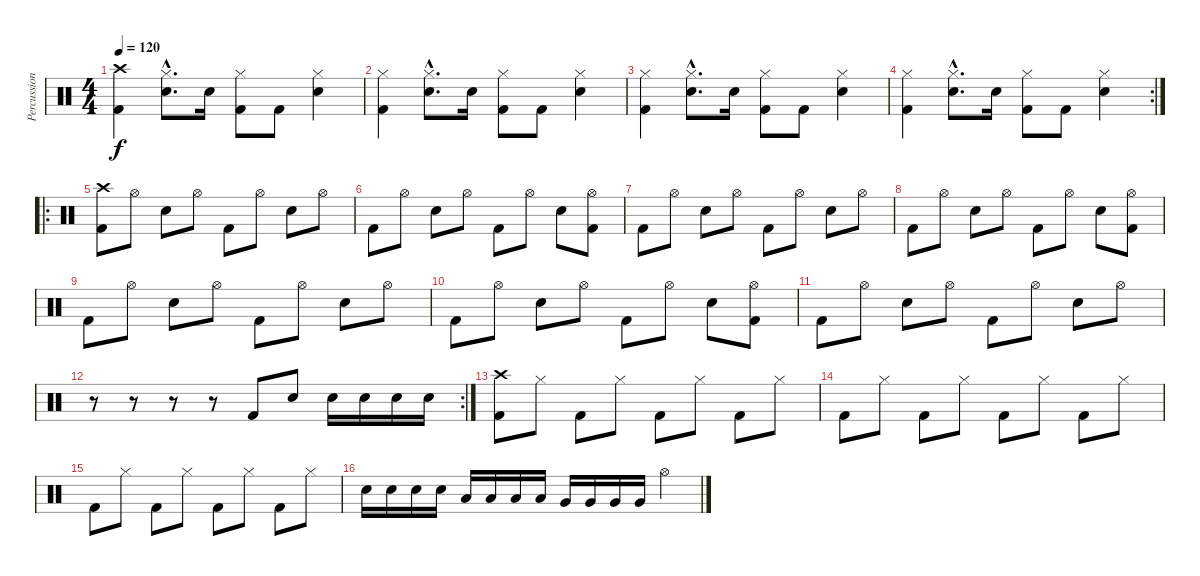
\track ("Percussions" "Percussion") {instrument percussion}
\staff {score}
\articulation defaults
\ts (4 4)
\tempo 120
\clef neutral
\ks c
("Crash high (hit)" "Kick (hit) 2").4{dy f volume 14} ("Hi-Hat (closed)"{hac} "Snare (hit) 2"{hac}).8{d} "Snare (hit) 2".16 ("Hi-Hat (closed)" "Kick (hit) 2").8 "Kick (hit) 2".8 ("Hi-Hat (closed)" "Snare (hit) 2").4 |
("Hi-Hat (closed)" "Kick (hit) 2").4 ("Hi-Hat (closed)"{hac} "Snare (hit) 2"{hac}).8{d} "Snare (hit) 2".16 ("Hi-Hat (closed)" "Kick (hit) 2").8 "Kick (hit) 2".8 ("Hi-Hat (closed)" "Snare (hit) 2").4 |
("Hi-Hat (closed)" "Kick (hit) 2").4 ("Hi-Hat (closed)"{hac} "Snare (hit) 2"{hac}).8{d} "Snare (hit) 2".16 ("Hi-Hat (closed)" "Kick (hit) 2").8 "Kick (hit) 2".8 ("Hi-Hat (closed)" "Snare (hit) 2").4 |
\rc 2
("Hi-Hat (closed)" "Kick (hit) 2").4 ("Hi-Hat (closed)"{hac} "Snare (hit) 2"{hac}).8{d} "Snare (hit) 2".16 ("Hi-Hat (closed)" "Kick (hit) 2").8 "Kick (hit) 2".8 ("Hi-Hat (closed)" "Snare (hit) 2").4 |
\ro
("Kick (hit) 2" "Crash high (hit)").8{volume 16} "Hi-Hat (open)".8 "Snare (hit) 2".8 "Hi-Hat (open)".8 "Kick (hit) 2".8 "Hi-Hat (open)".8 "Snare (hit) 2".8 "Hi-Hat (open)".8 |
"Kick (hit) 2".8 "Hi-Hat (open)".8 "Snare (hit) 2".8 "Hi-Hat (open)".8 "Kick (hit) 2".8 "Hi-Hat (open)".8 "Snare (hit) 2".8 ("Kick (hit) 2" "Hi-Hat (open)").8 |
"Kick (hit) 2".8 "Hi-Hat (open)".8 "Snare (hit) 2".8 "Hi-Hat (open)".8 "Kick (hit) 2".8 "Hi-Hat (open)".8 "Snare (hit) 2".8 "Hi-Hat (open)".8 |
"Kick (hit) 2".8 "Hi-Hat (open)".8 "Snare (hit) 2".8 "Hi-Hat (open)".8 "Kick (hit) 2".8 "Hi-Hat (open)".8 "Snare (hit) 2".8 ("Hi-Hat (open)" "Kick (hit) 2").8 |
"Kick (hit) 2".8 "Hi-Hat (open)".8 "Snare (hit) 2".8 "Hi-Hat (open)".8 "Kick (hit) 2".8 "Hi-Hat (open)".8 "Snare (hit) 2".8 "Hi-Hat (open)".8 |
"Kick (hit) 2".8 "Hi-Hat (open)".8 "Snare (hit) 2".8 "Hi-Hat (open)".8 "Kick (hit) 2".8 "Hi-Hat (open)".8 "Snare (hit) 2".8 ("Hi-Hat (open)" "Kick (hit) 2").8 |
"Kick (hit) 2".8 "Hi-Hat (open)".8 "Snare (hit) 2".8 "Hi-Hat (open)".8 "Kick (hit) 2".8 "Hi-Hat (open)".8 "Snare (hit) 2".8 "Hi-Hat (open)".8 |
\rc 2
r.8 r.8 r.8 r.8 "Kick (hit) 2".8 "Snare (hit) 2".8 "Snare (hit) 2".16 "Snare (hit) 2".16 "Snare (hit) 2".16 "Snare (hit) 2".16 |
("Kick (hit) 2" "Crash high (hit)").8 "Hi-Hat (closed)".8 "Kick (hit) 2".8 "Hi-Hat (closed)".8 "Kick (hit) 2".8 "Hi-Hat (closed)".8 "Kick (hit) 2".8 "Hi-Hat (closed)".8 |
"Kick (hit) 2".8 "Hi-Hat (closed)".8 "Kick (hit) 2".8 "Hi-Hat (closed)".8 "Kick (hit) 2".8 "Hi-Hat (closed)".8 "Kick (hit) 2".8 "Hi-Hat (closed)".8 |
"Kick (hit) 2".8 "Hi-Hat (closed)".8 "Kick (hit) 2".8 "Hi-Hat (closed)".8 "Kick (hit) 2".8 "Hi-Hat (closed)".8 "Kick (hit) 2".8 "Hi-Hat (closed)".8 |
"Snare (hit) 2".16 "Snare (hit) 2".16 "Snare (hit) 2".16 "Snare (hit) 2".16 "Low Tom (hit)".16 "Low Tom (hit)".16 "Low Tom (hit)".16 "Low Tom (hit)".16 "Very Low Tom (hit)".16 "Very Low Tom (hit)".16 "Very Low Tom (hit)".16 "Very Low Tom (hit)".16 "Hi-Hat (open)".4
